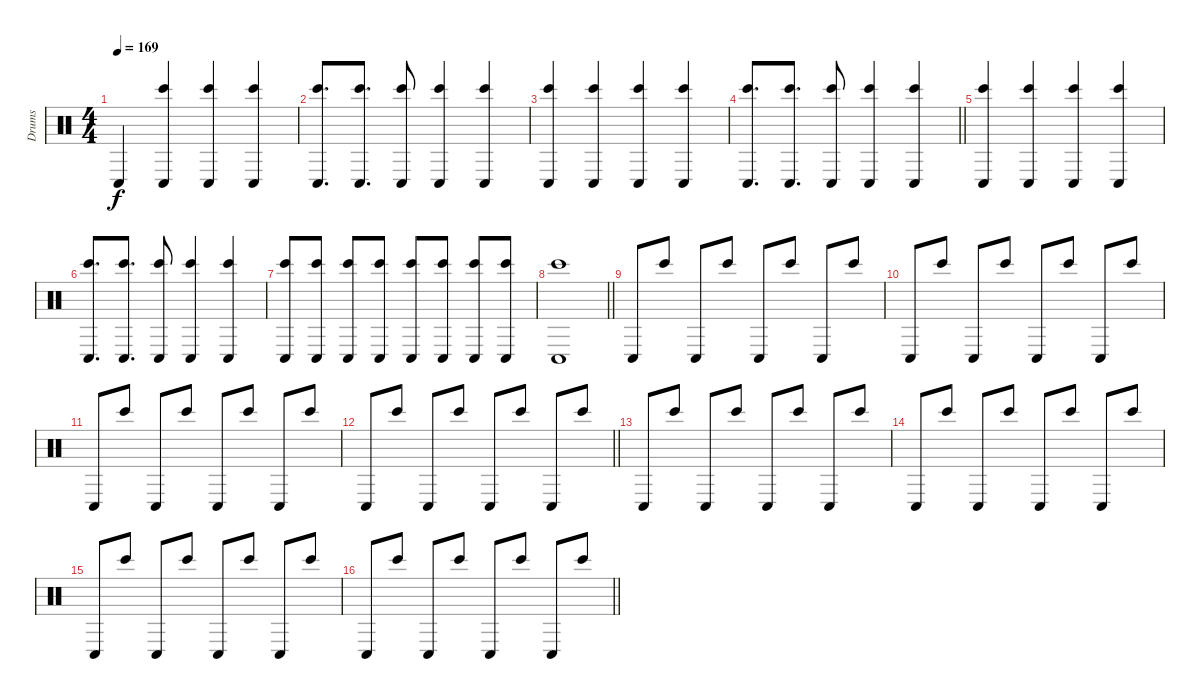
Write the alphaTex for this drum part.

\track ("Drums" "Drums") {instrument percussion}
\staff
\articulation defaults
\ts (4 4)
\section ("" "")
\tempo 169
\clef neutral
\ks c "Conga low (hit)".4{dy f}
("Bongo High (hit)" "Conga low (hit)").4 ("Bongo High (hit)" "Conga low (hit)").4 ("Bongo High (hit)" "Conga low (hit)").4 |
("Bongo High (hit)" "Conga low (hit)").8{d} ("Bongo High (hit)" "Conga low (hit)").8{d} ("Bongo High (hit)" "Conga low (hit)").8 ("Bongo High (hit)" "Conga low (hit)").4 ("Bongo High (hit)" "Conga low (hit)").4 |
("Bongo High (hit)" "Conga low (hit)").4 ("Bongo High (hit)" "Conga low (hit)").4 ("Bongo High (hit)" "Conga low (hit)").4 ("Bongo High (hit)" "Conga low (hit)").4 |
\barLineRight lightlight
("Bongo High (hit)" "Conga low (hit)").8{d} ("Bongo High (hit)" "Conga low (hit)").8{d} ("Bongo High (hit)" "Conga low (hit)").8 ("Bongo High (hit)" "Conga low (hit)").4 ("Bongo High (hit)" "Conga low (hit)").4 |
("Bongo High (hit)" "Conga low (hit)").4 ("Bongo High (hit)" "Conga low (hit)").4 ("Bongo High (hit)" "Conga low (hit)").4 ("Bongo High (hit)" "Conga low (hit)").4 |
("Bongo High (hit)" "Conga low (hit)").8{d} ("Bongo High (hit)" "Conga low (hit)").8{d} ("Bongo High (hit)" "Conga low (hit)").8 ("Bongo High (hit)" "Conga low (hit)").4 ("Bongo High (hit)" "Conga low (hit)").4 |
("Bongo High (hit)" "Conga low (hit)").8 ("Bongo High (hit)" "Conga low (hit)").8 ("Bongo High (hit)" "Conga low (hit)").8 ("Bongo High (hit)" "Conga low (hit)").8 ("Bongo High (hit)" "Conga low (hit)").8 ("Bongo High (hit)" "Conga low (hit)").8 ("Bongo High (hit)" "Conga low (hit)").8 ("Bongo High (hit)" "Conga low (hit)").8 |
\barLineRight lightlight
("Bongo High (hit)" "Conga low (hit)").1 |
\section ("" "")
"Conga low (hit)".8 "Bongo High (hit)".8 "Conga low (hit)".8 "Bongo High (hit)".8 "Conga low (hit)".8 "Bongo High (hit)".8 "Conga low (hit)".8 "Bongo High (hit)".8 |
"Conga low (hit)".8 "Bongo High (hit)".8 "Conga low (hit)".8 "Bongo High (hit)".8 "Conga low (hit)".8 "Bongo High (hit)".8 "Conga low (hit)".8 "Bongo High (hit)".8 |
"Conga low (hit)".8 "Bongo High (hit)".8 "Conga low (hit)".8 "Bongo High (hit)".8 "Conga low (hit)".8 "Bongo High (hit)".8 "Conga low (hit)".8 "Bongo High (hit)".8 |
\barLineRight lightlight "Conga low (hit)".8 "Bongo High (hit)".8 "Conga low (hit)".8 "Bongo High (hit)".8 "Conga low (hit)".8 "Bongo High (hit)".8 "Conga low (hit)".8 "Bongo High (hit)".8
|
"Conga low (hit)".8 "Bongo High (hit)".8 "Conga low (hit)".8 "Bongo High (hit)".8 "Conga low (hit)".8 "Bongo High (hit)".8 "Conga low (hit)".8 "Bongo High (hit)".8 |
"Conga low (hit)".8 "Bongo High (hit)".8 "Conga low (hit)".8 "Bongo High (hit)".8 "Conga low (hit)".8 "Bongo High (hit)".8 "Conga low (hit)".8 "Bongo High (hit)".8 |
"Conga low (hit)".8 "Bongo High (hit)".8 "Conga low (hit)".8 "Bongo High (hit)".8 "Conga low (hit)".8 "Bongo High (hit)".8 "Conga low (hit)".8 "Bongo High (hit)".8 |
\barLineRight lightlight "Conga low (hit)".8 "Bongo High (hit)".8 "Conga low (hit)".8 "Bongo High (hit)".8 "Conga low (hit)".8 "Bongo High (hit)".8 "Conga low (hit)".8 "Bongo High (hit)".8
